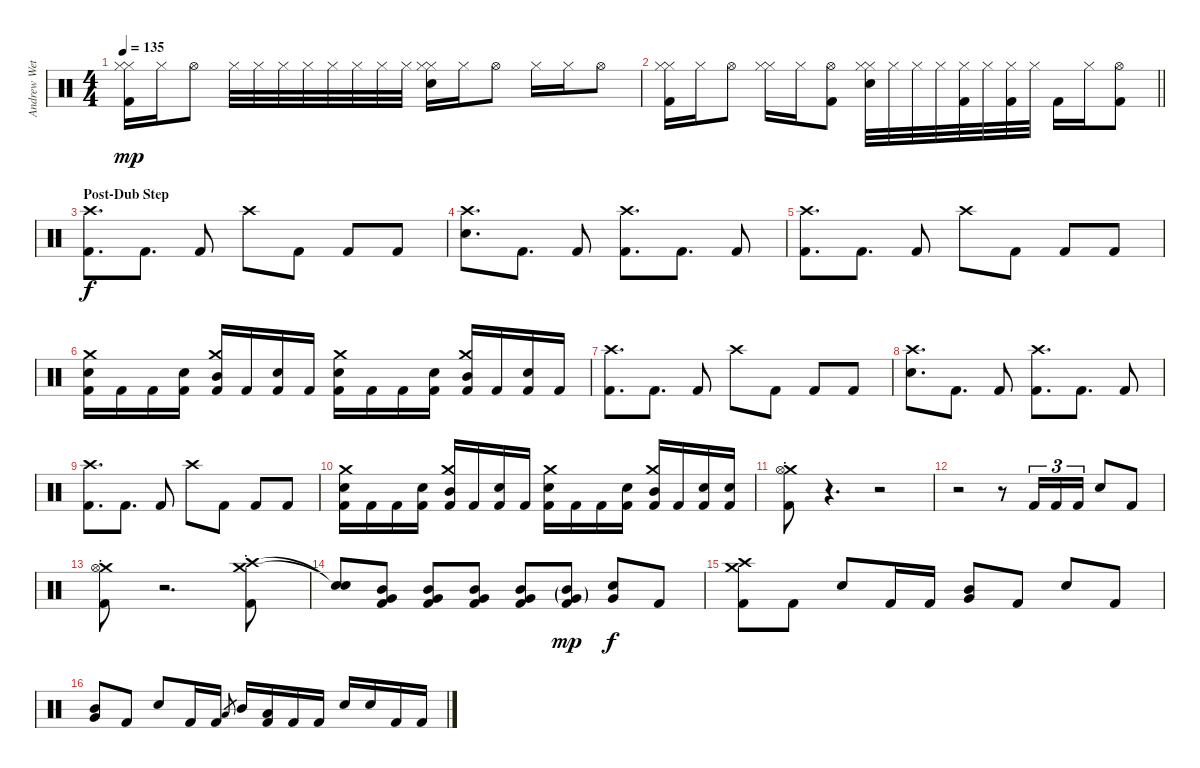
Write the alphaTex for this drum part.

\track ("Andrew Wetzel" "Andrew Wet") {instrument percussion}
\staff
\articulation defaults
\ts (4 4)
\tempo 135
\clef neutral
\ks c
("Hi-Hat (closed)" "Hi-Hat (closed)" "Kick (hit) 2").16{dy mp} "Hi-Hat (closed)".16 "Hi-Hat (open)".8 "Hi-Hat (closed)".32 "Hi-Hat (closed)".32 "Hi-Hat (closed)".32 "Hi-Hat (closed)".32 "Hi-Hat (closed)".32 "Hi-Hat (closed)".32 "Hi-Hat (closed)".32 "Hi-Hat (closed)".32 ("Hi-Hat (closed)" "Hi-Hat (closed)" "Electric Snare (hit)").16 "Hi-Hat (closed)".16 "Hi-Hat (open)".8 "Hi-Hat (closed)".16 "Hi-Hat (closed)".16 "Hi-Hat (open)".8 |
\barLineRight lightlight
("Hi-Hat (closed)" "Hi-Hat (closed)" "Kick (hit) 2").16 "Hi-Hat (closed)".16 "Hi-Hat (open)".8 ("Hi-Hat (closed)" "Hi-Hat (closed)").16 "Hi-Hat (closed)".16 ("Hi-Hat (open)" "Kick (hit) 2").8 ("Hi-Hat (closed)" "Hi-Hat (closed)" "Electric Snare (hit)").32 "Hi-Hat (closed)".32 "Hi-Hat (closed)".32 "Hi-Hat (closed)".32 ("Hi-Hat (closed)" "Kick (hit) 2").32 "Hi-Hat (closed)".32 ("Hi-Hat (closed)" "Kick (hit) 2").32 "Hi-Hat (closed)".32 "Kick (hit) 2".16 "Hi-Hat (closed)".16 ("Hi-Hat (open)" "Kick (hit) 2").8 |
\section ("" "Post-Dub Step")
("Crash high (hit)" "Kick (hit) 2").8{d dy f} "Kick (hit) 2".8{d} "Kick (hit) 2".8 "Crash high (hit)".8 "Kick (hit) 2".8 "Kick (hit) 2".8 "Kick (hit) 2".8 |
("Crash high (hit)" "Snare (hit) 2").8{d} "Kick (hit) 2".8{d} "Kick (hit) 2".8 ("Crash high (hit)" "Kick (hit) 2").8{d} "Kick (hit) 2".8{d} "Kick (hit) 2".8 |
("Crash high (hit)" "Kick (hit) 2").8{d} "Kick (hit) 2".8{d} "Kick (hit) 2".8 "Crash high (hit)".8 "Kick (hit) 2".8 "Kick (hit) 2".8 "Kick (hit) 2".8 |
("Crash medium (hit)" "Snare (hit) 2" "Kick (hit) 2").16 "Kick (hit) 2".16 "Kick (hit) 2".16 ("Snare (hit) 2" "Kick (hit) 2").16 ("Crash medium (hit)" "Mid Tom (hit)" "Kick (hit) 2").16 "Kick (hit) 2".16 ("Snare (hit) 2" "Kick (hit) 2").16 "Kick (hit) 2".16 ("Crash medium (hit)" "Snare (hit) 2" "Kick (hit) 2").16 "Kick (hit) 2".16 "Kick (hit) 2".16 ("Snare (hit) 2" "Kick (hit) 2").16 ("Crash medium (hit)" "Mid Tom (hit)" "Kick (hit) 2").16 "Kick (hit) 2".16 ("Snare (hit) 2" "Kick (hit) 2").16 "Kick (hit) 2".16 |
("Crash high (hit)" "Kick (hit) 2").8{d} "Kick (hit) 2".8{d} "Kick (hit) 2".8 "Crash high (hit)".8 "Kick (hit) 2".8 "Kick (hit) 2".8 "Kick (hit) 2".8 |
("Crash high (hit)" "Snare (hit) 2").8{d} "Kick (hit) 2".8{d} "Kick (hit) 2".8 ("Crash high (hit)" "Kick (hit) 2").8{d} "Kick (hit) 2".8{d} "Kick (hit) 2".8 |
("Crash high (hit)" "Kick (hit) 2").8{d} "Kick (hit) 2".8{d} "Kick (hit) 2".8 "Crash high (hit)".8 "Kick (hit) 2".8 "Kick (hit) 2".8 "Kick (hit) 2".8 |
("Crash medium (hit)" "Snare (hit) 2" "Kick (hit) 2").16 "Kick (hit) 2".16 "Kick (hit) 2".16 ("Snare (hit) 2" "Kick (hit) 2").16 ("Crash medium (hit)" "Mid Tom (hit)" "Kick (hit) 2").16 "Kick (hit) 2".16 ("Snare (hit) 2" "Kick (hit) 2").16 "Kick (hit) 2".16 ("Crash medium (hit)" "Snare (hit) 2" "Kick (hit) 2").16 "Kick (hit) 2".16 "Kick (hit) 2".16 ("Snare (hit) 2" "Kick (hit) 2").16 ("Crash medium (hit)" "Mid Tom (hit)" "Kick (hit) 2").16 "Kick (hit) 2".16 ("Snare (hit) 2" "Kick (hit) 2").16 ("Snare (hit) 2" "Kick (hit) 2").16 |
("Crash medium (hit)"{st} "Hi-Hat (open)"{st} "Kick (hit) 2"{st}).8 r.4{d volume 0} r.2 |
r.2{volume 13} r.8 "Kick (hit) 2".16{tu (3 2)} "Kick (hit) 2".16{tu (3 2)} "Kick (hit) 2".16{tu (3 2)} "Snare (hit) 2".8 "Kick (hit) 2".8 |
("Crash medium (hit)"{st} "Hi-Hat (open)"{st} "Kick (hit) 2"{st}).8 r.2{d volume 0} ("Crash medium (hit)"{st} "Crash high (hit)"{st} "Kick (hit) 2"{st}).8{volume 13} |
("Snare (hit)"{t} "Snare (hit)"{t}).8 ("Mid Tom (hit)" "Very Low Tom (hit)" "Kick (hit) 2").8 ("Mid Tom (hit)" "Very Low Tom (hit)" "Kick (hit) 2").8 ("Mid Tom (hit)" "Very Low Tom (hit)" "Kick (hit) 2").8 ("Mid Tom (hit)" "Very Low Tom (hit)" "Kick (hit) 2").8 ("Mid Tom (hit)"{g} "Very Low Tom (hit)"{g} "Kick (hit) 2").8{dy mp} ("Very Low Tom (hit)" "Snare (hit) 2").8{dy f} "Kick (hit) 2".8 |
("Crash medium (hit)" "Crash high (hit)" "Kick (hit) 2").8 "Kick (hit) 2".8 "Snare (hit) 2".8 "Kick (hit) 2".16 "Kick (hit) 2".16 ("Mid Tom (hit)" "Very Low Tom (hit)").8 "Kick (hit) 2".8 "Snare (hit) 2".8 "Kick (hit) 2".8 |
("Mid Tom (hit)" "Very Low Tom (hit)").8 "Kick (hit) 2".8 "Snare (hit) 2".8 "Kick (hit) 2".16 "Kick (hit) 2".16 "Low Tom (hit)".8{gr} "Mid Tom (hit)".16 ("Low Tom (hit)" "Kick (hit) 2").16 "Kick (hit) 2".16 "Kick (hit) 2".16 "Snare (hit) 2".16 "Snare (hit) 2".16 "Kick (hit) 2".16 "Kick (hit) 2".16
